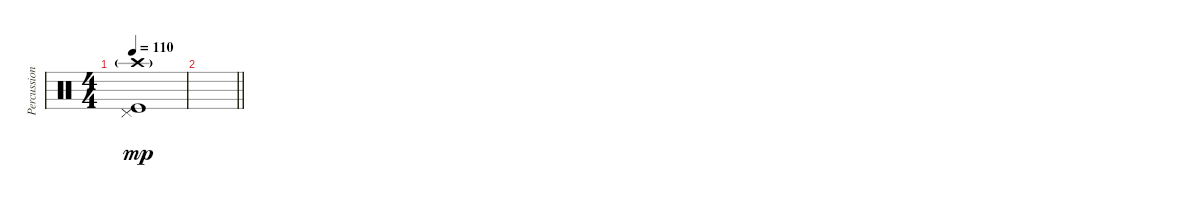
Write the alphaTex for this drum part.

\track ("Percussions" "Percussion") {instrument percussion}
\staff {score}
\articulation defaults
\ts (4 4)
\tempo 110
\clef neutral
\ks c
("Crash high (hit)"{g} "Pedal Hi-Hat (hit)" "Kick (hit)").1{dy mp} |
\barLineRight lightlight
